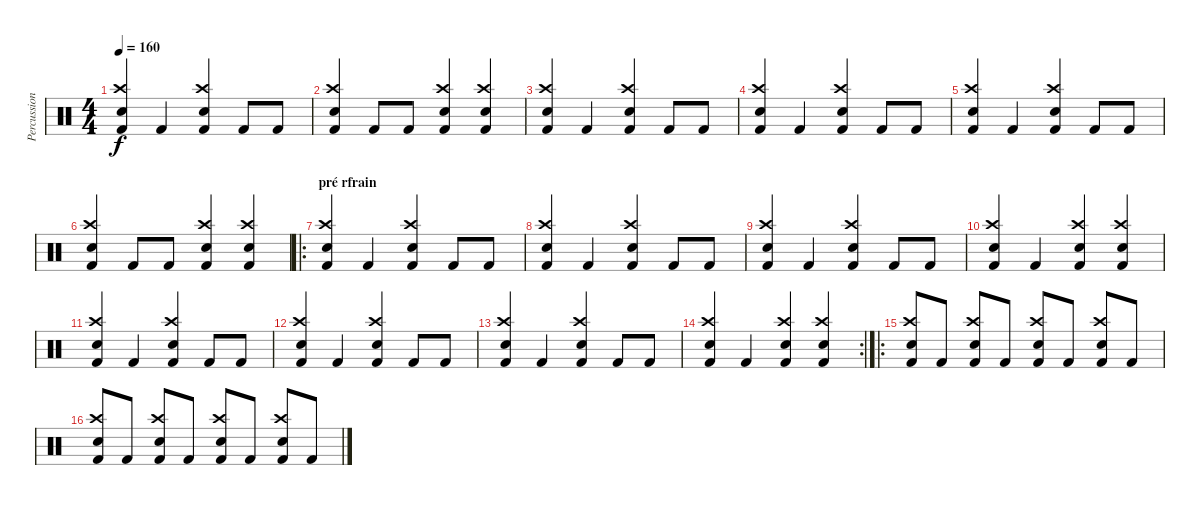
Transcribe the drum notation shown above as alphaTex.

\track ("Percussions" "Percussion") {instrument percussion}
\staff {score}
\articulation defaults
\ts (4 4)
\tempo 160
\clef neutral
\ks c
("Kick (hit) 2" "Crash high (hit)" "Electric Snare (hit)").4{dy f} "Kick (hit) 2".4 ("Kick (hit) 2" "Crash high (hit)" "Electric Snare (hit)").4 "Kick (hit) 2".8 "Kick (hit) 2".8 |
("Electric Snare (hit)" "Kick (hit) 2" "Crash high (hit)").4 "Kick (hit) 2".8 "Kick (hit) 2".8 ("Kick (hit) 2" "Crash high (hit)" "Electric Snare (hit)").4 ("Kick (hit) 2" "Crash high (hit)" "Electric Snare (hit)").4 |
("Kick (hit) 2" "Crash high (hit)" "Electric Snare (hit)").4 "Kick (hit) 2".4 ("Kick (hit) 2" "Crash high (hit)" "Electric Snare (hit)").4 "Kick (hit) 2".8 "Kick (hit) 2".8 |
("Kick (hit) 2" "Crash high (hit)" "Electric Snare (hit)").4 "Kick (hit) 2".4 ("Kick (hit) 2" "Crash high (hit)" "Electric Snare (hit)").4 "Kick (hit) 2".8 "Kick (hit) 2".8 |
("Kick (hit) 2" "Crash high (hit)" "Electric Snare (hit)").4 "Kick (hit) 2".4 ("Kick (hit) 2" "Crash high (hit)" "Electric Snare (hit)").4 "Kick (hit) 2".8 "Kick (hit) 2".8 |
("Electric Snare (hit)" "Kick (hit) 2" "Crash high (hit)").4 "Kick (hit) 2".8 "Kick (hit) 2".8 ("Kick (hit) 2" "Crash high (hit)" "Electric Snare (hit)").4 ("Kick (hit) 2" "Crash high (hit)" "Electric Snare (hit)").4 |
\ro
\section ("" "pré rfrain")
("Crash high (hit)" "Kick (hit) 2" "Electric Snare (hit)").4 "Kick (hit) 2".4 ("Crash high (hit)" "Electric Snare (hit)" "Kick (hit) 2").4 "Kick (hit) 2".8 "Kick (hit) 2".8 |
("Crash high (hit)" "Kick (hit) 2" "Electric Snare (hit)").4 "Kick (hit) 2".4 ("Crash high (hit)" "Electric Snare (hit)" "Kick (hit) 2").4 "Kick (hit) 2".8 "Kick (hit) 2".8 |
("Crash high (hit)" "Kick (hit) 2" "Electric Snare (hit)").4 "Kick (hit) 2".4 ("Crash high (hit)" "Electric Snare (hit)" "Kick (hit) 2").4 "Kick (hit) 2".8 "Kick (hit) 2".8 |
("Crash high (hit)" "Kick (hit) 2" "Electric Snare (hit)").4 "Kick (hit) 2".4 ("Crash high (hit)" "Electric Snare (hit)" "Kick (hit) 2").4 ("Crash high (hit)" "Electric Snare (hit)" "Kick (hit) 2").4 |
("Crash high (hit)" "Kick (hit) 2" "Electric Snare (hit)").4 "Kick (hit) 2".4 ("Crash high (hit)" "Electric Snare (hit)" "Kick (hit) 2").4 "Kick (hit) 2".8 "Kick (hit) 2".8 |
("Crash high (hit)" "Kick (hit) 2" "Electric Snare (hit)").4 "Kick (hit) 2".4 ("Crash high (hit)" "Electric Snare (hit)" "Kick (hit) 2").4 "Kick (hit) 2".8 "Kick (hit) 2".8 |
("Crash high (hit)" "Kick (hit) 2" "Electric Snare (hit)").4 "Kick (hit) 2".4 ("Crash high (hit)" "Electric Snare (hit)" "Kick (hit) 2").4 "Kick (hit) 2".8 "Kick (hit) 2".8 |
\rc 2
("Crash high (hit)" "Kick (hit) 2" "Electric Snare (hit)").4 "Kick (hit) 2".4 ("Crash high (hit)" "Electric Snare (hit)" "Kick (hit) 2").4 ("Crash high (hit)" "Electric Snare (hit)" "Kick (hit) 2").4 |
\ro
("Electric Snare (hit)" "Crash high (hit)" "Kick (hit) 2").8 "Kick (hit) 2".8 ("Electric Snare (hit)" "Crash high (hit)" "Kick (hit) 2").8 "Kick (hit) 2".8 ("Electric Snare (hit)" "Crash high (hit)" "Kick (hit) 2").8 "Kick (hit) 2".8 ("Electric Snare (hit)" "Crash high (hit)" "Kick (hit) 2").8 "Kick (hit) 2".8 |
("Electric Snare (hit)" "Crash high (hit)" "Kick (hit) 2").8 "Kick (hit) 2".8 ("Electric Snare (hit)" "Crash high (hit)" "Kick (hit) 2").8 "Kick (hit) 2".8 ("Electric Snare (hit)" "Crash high (hit)" "Kick (hit) 2").8 "Kick (hit) 2".8 ("Electric Snare (hit)" "Crash high (hit)" "Kick (hit) 2").8 "Kick (hit) 2".8
